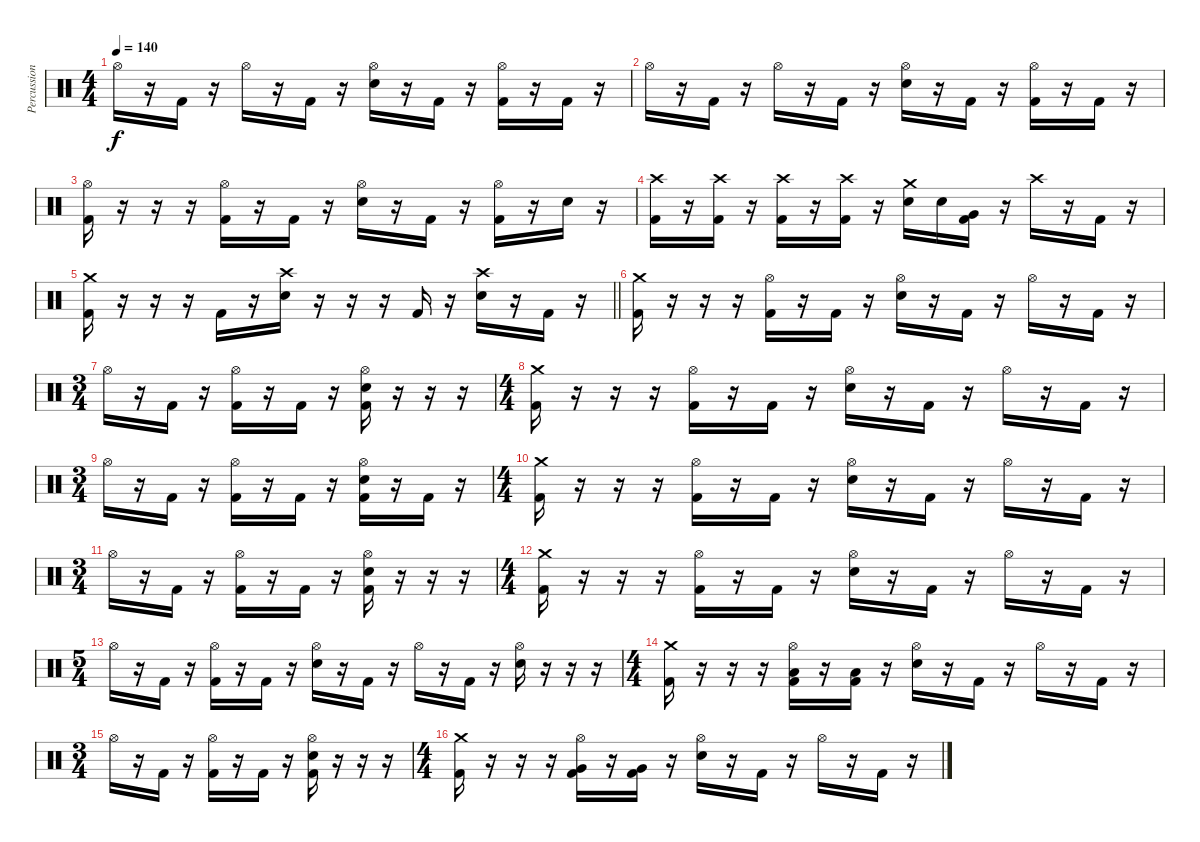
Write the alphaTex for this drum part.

\track ("Percussion" "Percussion") {instrument percussion}
\staff {score}
\articulation defaults
\ts (4 4)
\tempo 140
\clef neutral
\ks c "Hi-Hat (open)".16{dy f}
r.16 "Kick (hit) 2".16 r.16 "Hi-Hat (open)".16 r.16 "Kick (hit) 2".16 r.16 ("Hi-Hat (open)" "Snare (hit) 2").16 r.16 "Kick (hit) 2".16 r.16 ("Hi-Hat (open)" "Kick (hit) 2").16 r.16 "Kick (hit) 2".16 r.16 |
"Hi-Hat (open)".16 r.16 "Kick (hit) 2".16 r.16 "Hi-Hat (open)".16 r.16 "Kick (hit) 2".16 r.16 ("Hi-Hat (open)" "Snare (hit) 2").16 r.16 "Kick (hit) 2".16 r.16 ("Hi-Hat (open)" "Kick (hit) 2").16 r.16 "Kick (hit) 2".16 r.16 |
("Hi-Hat (open)" "Kick (hit) 2").16 r.16 r.16 r.16 ("Hi-Hat (open)" "Kick (hit) 2").16 r.16 "Kick (hit) 2".16 r.16 ("Hi-Hat (open)" "Snare (hit) 2").16 r.16 "Kick (hit) 2".16 r.16 ("Hi-Hat (open)" "Kick (hit) 2").16 r.16 "Snare (hit) 2".16 r.16 |
("Crash high (hit)" "Kick (hit) 2").16 r.16 ("Crash high (hit)" "Kick (hit) 2").16 r.16 ("Crash high (hit)" "Kick (hit) 2").16 r.16 ("Crash high (hit)" "Kick (hit) 2").16 r.16 ("Crash medium (hit)" "Snare (hit) 2").16 "Snare (hit) 2".16 ("Very Low Tom (hit)" "Kick (hit) 2").16 r.16 "Crash high (hit)".16 r.16 "Kick (hit) 2".16 r.16 |
\barLineRight lightlight
("Crash medium (hit)" "Kick (hit) 2").16 r.16 r.16 r.16 "Kick (hit) 2".16 r.16 ("Crash high (hit)" "Snare (hit) 2").16 r.16 r.16 r.16 "Kick (hit) 2".16 r.16 ("Crash high (hit)" "Snare (hit) 2").16 r.16 "Kick (hit) 2".16 r.16 |
("Crash medium (hit)" "Kick (hit) 2").16 r.16 r.16 r.16 ("Hi-Hat (open)" "Kick (hit) 2").16 r.16 "Kick (hit) 2".16 r.16 ("Hi-Hat (open)" "Snare (hit) 2").16 r.16 "Kick (hit) 2".16 r.16 "Hi-Hat (open)".16 r.16 "Kick (hit) 2".16 r.16 |
\ts (3 4)
"Hi-Hat (open)".16 r.16 "Kick (hit) 2".16 r.16 ("Hi-Hat (open)" "Kick (hit) 2").16 r.16 "Kick (hit) 2".16 r.16 ("Hi-Hat (open)" "Snare (hit) 2" "Kick (hit) 2").16 r.16 r.16 r.16 |
\ts (4 4)
("Crash medium (hit)" "Kick (hit) 2").16 r.16 r.16 r.16 ("Hi-Hat (open)" "Kick (hit) 2").16 r.16 "Kick (hit) 2".16 r.16 ("Hi-Hat (open)" "Snare (hit) 2").16 r.16 "Kick (hit) 2".16 r.16 "Hi-Hat (open)".16 r.16 "Kick (hit) 2".16 r.16 |
\ts (3 4)
"Hi-Hat (open)".16 r.16 "Kick (hit) 2".16 r.16 ("Hi-Hat (open)" "Kick (hit) 2").16 r.16 "Kick (hit) 2".16 r.16 ("Hi-Hat (open)" "Snare (hit) 2" "Kick (hit) 2").16 r.16 "Kick (hit) 2".16 r.16 |
\ts (4 4)
("Crash medium (hit)" "Kick (hit) 2").16 r.16 r.16 r.16 ("Hi-Hat (open)" "Kick (hit) 2").16 r.16 "Kick (hit) 2".16 r.16 ("Hi-Hat (open)" "Snare (hit) 2").16 r.16 "Kick (hit) 2".16 r.16 "Hi-Hat (open)".16 r.16 "Kick (hit) 2".16 r.16 |
\ts (3 4)
"Hi-Hat (open)".16 r.16 "Kick (hit) 2".16 r.16 ("Hi-Hat (open)" "Kick (hit) 2").16 r.16 "Kick (hit) 2".16 r.16 ("Hi-Hat (open)" "Snare (hit) 2" "Kick (hit) 2").16 r.16 r.16 r.16 |
\ts (4 4)
("Crash medium (hit)" "Kick (hit) 2").16 r.16 r.16 r.16 ("Hi-Hat (open)" "Kick (hit) 2").16 r.16 "Kick (hit) 2".16 r.16 ("Hi-Hat (open)" "Snare (hit) 2").16 r.16 "Kick (hit) 2".16 r.16 "Hi-Hat (open)".16 r.16 "Kick (hit) 2".16 r.16 |
\ts (5 4)
"Hi-Hat (open)".16 r.16 "Kick (hit) 2".16 r.16 ("Hi-Hat (open)" "Kick (hit) 2").16 r.16 "Kick (hit) 2".16 r.16 ("Hi-Hat (open)" "Snare (hit) 2").16 r.16 "Kick (hit) 2".16 r.16 "Hi-Hat (open)".16 r.16 "Kick (hit) 2".16 r.16 ("Hi-Hat (open)" "Snare (hit) 2").16 r.16 r.16 r.16 |
\ts (4 4)
("Crash medium (hit)" "Kick (hit) 2").16 r.16 r.16 r.16 ("Hi-Hat (open)" "Low Floor Tom (hit)" "Kick (hit) 2").16 r.16 ("Low Floor Tom (hit)" "Kick (hit) 2").16 r.16 ("Hi-Hat (open)" "Snare (hit) 2").16 r.16 "Kick (hit) 2".16 r.16 "Hi-Hat (open)".16 r.16 "Kick (hit) 2".16 r.16 |
\ts (3 4)
"Hi-Hat (open)".16 r.16 "Kick (hit) 2".16 r.16 ("Hi-Hat (open)" "Kick (hit) 2").16 r.16 "Kick (hit) 2".16 r.16 ("Hi-Hat (open)" "Snare (hit) 2" "Kick (hit) 2").16 r.16 r.16 r.16 |
\ts (4 4)
("Crash medium (hit)" "Kick (hit) 2").16 r.16 r.16 r.16 ("Hi-Hat (open)" "Very Low Tom (hit)" "Kick (hit) 2").16 r.16 ("Very Low Tom (hit)" "Kick (hit) 2").16 r.16 ("Hi-Hat (open)" "Snare (hit) 2").16 r.16 "Kick (hit) 2".16 r.16 "Hi-Hat (open)".16 r.16 "Kick (hit) 2".16 r.16
